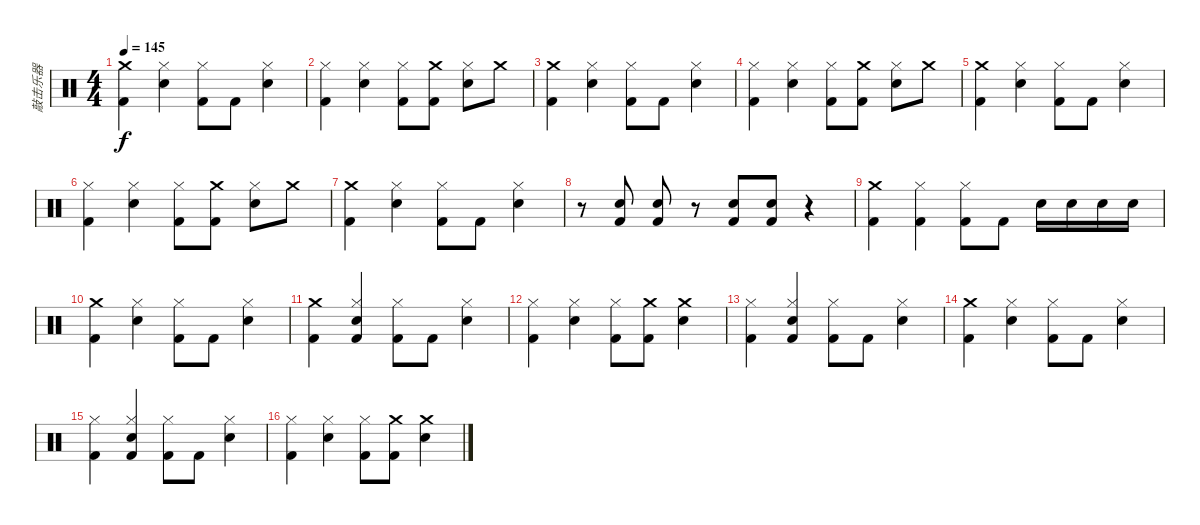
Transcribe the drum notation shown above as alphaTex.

\track ("敲击乐器" "敲击乐器") {instrument percussion}
\staff {score}
\articulation defaults
\ts (4 4)
\tempo 145
\clef neutral
\ks c
("Crash medium (hit)" "Kick (hit) 2").4{dy f} ("Hi-Hat (closed)" "Electric Snare (hit)").4 ("Hi-Hat (closed)" "Kick (hit) 2").8 "Kick (hit) 2".8 ("Hi-Hat (closed)" "Electric Snare (hit)").4 |
("Hi-Hat (closed)" "Kick (hit) 2").4 ("Hi-Hat (closed)" "Electric Snare (hit)").4 ("Hi-Hat (closed)" "Kick (hit) 2").8 ("Crash medium (hit)" "Kick (hit) 2").8 ("Hi-Hat (closed)" "Electric Snare (hit)").8 "Crash medium (hit)".8 |
("Crash medium (hit)" "Kick (hit) 2").4 ("Hi-Hat (closed)" "Electric Snare (hit)").4 ("Hi-Hat (closed)" "Kick (hit) 2").8 "Kick (hit) 2".8 ("Hi-Hat (closed)" "Electric Snare (hit)").4 |
("Hi-Hat (closed)" "Kick (hit) 2").4 ("Hi-Hat (closed)" "Electric Snare (hit)").4 ("Hi-Hat (closed)" "Kick (hit) 2").8 ("Crash medium (hit)" "Kick (hit) 2").8 ("Hi-Hat (closed)" "Electric Snare (hit)").8 "Crash medium (hit)".8 |
("Crash medium (hit)" "Kick (hit) 2").4 ("Hi-Hat (closed)" "Electric Snare (hit)").4 ("Hi-Hat (closed)" "Kick (hit) 2").8 "Kick (hit) 2".8 ("Hi-Hat (closed)" "Electric Snare (hit)").4 |
("Hi-Hat (closed)" "Kick (hit) 2").4 ("Hi-Hat (closed)" "Electric Snare (hit)").4 ("Hi-Hat (closed)" "Kick (hit) 2").8 ("Crash medium (hit)" "Kick (hit) 2").8 ("Hi-Hat (closed)" "Electric Snare (hit)").8 "Crash medium (hit)".8 |
("Crash medium (hit)" "Kick (hit) 2").4 ("Hi-Hat (closed)" "Electric Snare (hit)").4 ("Hi-Hat (closed)" "Kick (hit) 2").8 "Kick (hit) 2".8 ("Hi-Hat (closed)" "Electric Snare (hit)").4 |
r.8 ("Electric Snare (hit)" "Kick (hit) 2").8 ("Electric Snare (hit)" "Kick (hit) 2").8 r.8 ("Electric Snare (hit)" "Kick (hit) 2").8 ("Electric Snare (hit)" "Kick (hit) 2").8 r.4 |
("Crash medium (hit)" "Kick (hit) 2").4 ("Hi-Hat (closed)" "Kick (hit) 2").4 ("Hi-Hat (closed)" "Kick (hit) 2").8 "Kick (hit) 2".8 "Electric Snare (hit)".16 "Electric Snare (hit)".16 "Electric Snare (hit)".16 "Electric Snare (hit)".16 |
("Crash medium (hit)" "Kick (hit) 2").4 ("Hi-Hat (closed)" "Electric Snare (hit)").4 ("Hi-Hat (closed)" "Kick (hit) 2").8 "Kick (hit) 2".8 ("Hi-Hat (closed)" "Electric Snare (hit)").4 |
("Crash medium (hit)" "Kick (hit) 2").4 ("Hi-Hat (closed)" "Electric Snare (hit)" "Kick (hit) 2").4 ("Hi-Hat (closed)" "Kick (hit) 2").8 "Kick (hit) 2".8 ("Hi-Hat (closed)" "Electric Snare (hit)").4 |
("Hi-Hat (closed)" "Kick (hit) 2").4 ("Hi-Hat (closed)" "Electric Snare (hit)").4 ("Hi-Hat (closed)" "Kick (hit) 2").8 ("Crash medium (hit)" "Kick (hit) 2").8 ("Crash medium (hit)" "Electric Snare (hit)").4 |
("Hi-Hat (closed)" "Kick (hit) 2").4 ("Hi-Hat (closed)" "Electric Snare (hit)" "Kick (hit) 2").4 ("Hi-Hat (closed)" "Kick (hit) 2").8 "Kick (hit) 2".8 ("Hi-Hat (closed)" "Electric Snare (hit)").4 |
("Crash medium (hit)" "Kick (hit) 2").4 ("Hi-Hat (closed)" "Electric Snare (hit)").4 ("Hi-Hat (closed)" "Kick (hit) 2").8 "Kick (hit) 2".8 ("Hi-Hat (closed)" "Electric Snare (hit)").4 |
("Hi-Hat (closed)" "Kick (hit) 2").4 ("Hi-Hat (closed)" "Electric Snare (hit)" "Kick (hit) 2").4 ("Hi-Hat (closed)" "Kick (hit) 2").8 "Kick (hit) 2".8 ("Hi-Hat (closed)" "Electric Snare (hit)").4 |
("Hi-Hat (closed)" "Kick (hit) 2").4 ("Hi-Hat (closed)" "Electric Snare (hit)").4 ("Hi-Hat (closed)" "Kick (hit) 2").8 ("Crash medium (hit)" "Kick (hit) 2").8 ("Crash medium (hit)" "Electric Snare (hit)").4
